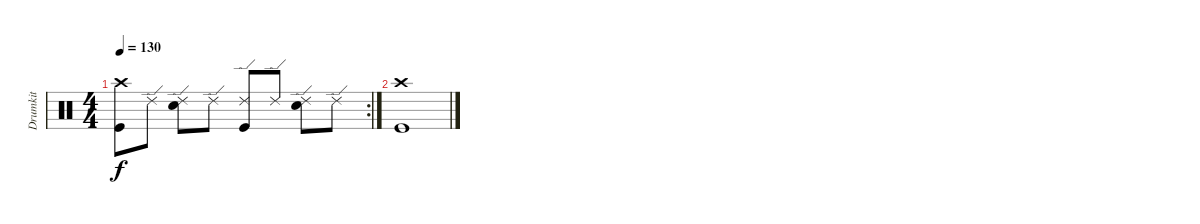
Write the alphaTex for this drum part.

\track ("Drumkit" "Drumkit") {instrument percussion}
\staff {score}
\articulation defaults
\rc 2
\ts (4 4)
\tempo 130
\clef neutral
\ks c
("Crash high (hit)" "Kick (hit)").8{dy f} "Ride (edge) 2".8 ("Ride (edge) 2" "Electric Snare (hit)").8 "Ride (edge) 2".8 ("Ride (edge) 2" "Kick (hit)").8 "Ride (edge) 2".8 ("Ride (edge) 2" "Electric Snare (hit)").8 "Ride (edge) 2".8 |
("Crash high (hit)" "Kick (hit)").1
